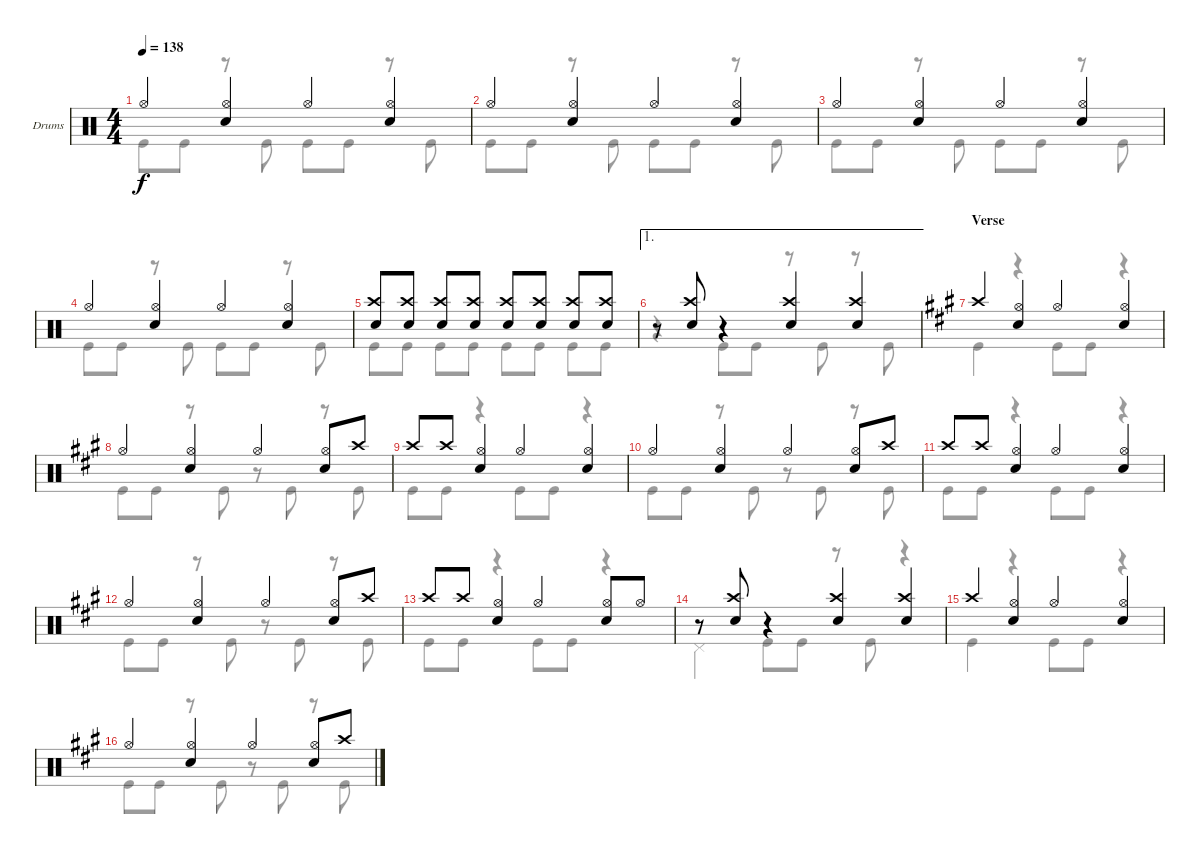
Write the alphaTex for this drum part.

\defaultSystemsLayout 4
\bracketExtendMode groupsimilarinstruments
\firstSystemTrackNameOrientation horizontal
\otherSystemsTrackNameOrientation horizontal
\track ("Drumkit" "Drums") {instrument percussion}
\staff {score}
\articulation defaults
\voice
\ts (4 4)
\tempo 138
\clef neutral
\ks c "Hi-Hat (open)".4{dy f}
("Hi-Hat (open)" "Snare (hit) 2").4 "Hi-Hat (open)".4 ("Hi-Hat (open)" "Snare (hit) 2").4 |
"Hi-Hat (open)".4 ("Hi-Hat (open)" "Snare (hit) 2").4 "Hi-Hat (open)".4 ("Hi-Hat (open)" "Snare (hit) 2").4 |
"Hi-Hat (open)".4 ("Hi-Hat (open)" "Snare (hit) 2").4 "Hi-Hat (open)".4 ("Hi-Hat (open)" "Snare (hit) 2").4 |
"Hi-Hat (open)".4 ("Hi-Hat (open)" "Snare (hit) 2").4 "Hi-Hat (open)".4 ("Hi-Hat (open)" "Snare (hit) 2").4 |
("Snare (hit) 2" "Crash high (hit)").8 ("Snare (hit) 2" "Crash high (hit)").8 ("Snare (hit) 2" "Crash high (hit)").8 ("Snare (hit) 2" "Crash high (hit)").8 ("Snare (hit) 2" "Crash high (hit)").8 ("Snare (hit) 2" "Crash high (hit)").8 ("Snare (hit) 2" "Crash high (hit)").8 ("Snare (hit) 2" "Crash high (hit)").8 |
\ae 1
r.8 ("Crash high (hit)" "Snare (hit) 2").8 r.4 ("Crash high (hit)" "Snare (hit) 2").4 ("Crash high (hit)" "Snare (hit) 2").4 |
\section ("" "Verse")
\ks a "Crash high (hit)".4
("Hi-Hat (open)" "Snare (hit) 2").4 "Hi-Hat (open)".4 ("Hi-Hat (open)" "Snare (hit) 2").4 |
"Hi-Hat (open)".4 ("Snare (hit) 2" "Hi-Hat (open)").4 "Hi-Hat (open)".4 ("Snare (hit) 2" "Hi-Hat (open)").8 "Crash high (hit)".8 |
"Crash high (hit)".8 "Crash high (hit)".8 ("Hi-Hat (open)" "Snare (hit) 2").4 "Hi-Hat (open)".4 ("Hi-Hat (open)" "Snare (hit) 2").4 |
"Hi-Hat (open)".4 ("Snare (hit) 2" "Hi-Hat (open)").4 "Hi-Hat (open)".4 ("Snare (hit) 2" "Hi-Hat (open)").8 "Crash high (hit)".8 |
"Crash high (hit)".8 "Crash high (hit)".8 ("Hi-Hat (open)" "Snare (hit) 2").4 "Hi-Hat (open)".4 ("Hi-Hat (open)" "Snare (hit) 2").4 |
"Hi-Hat (open)".4 ("Snare (hit) 2" "Hi-Hat (open)").4 "Hi-Hat (open)".4 ("Snare (hit) 2" "Hi-Hat (open)").8 "Crash high (hit)".8 |
"Crash high (hit)".8 "Crash high (hit)".8 ("Hi-Hat (open)" "Snare (hit) 2").4 "Hi-Hat (open)".4 ("Hi-Hat (open)" "Snare (hit) 2").8 "Hi-Hat (open)".8 |
r.8 ("Crash high (hit)" "Snare (hit) 2").8 r.4 ("Crash high (hit)" "Snare (hit) 2").4 ("Crash high (hit)" "Snare (hit) 2").4 |
"Crash high (hit)".4 ("Hi-Hat (open)" "Snare (hit) 2").4 "Hi-Hat (open)".4 ("Hi-Hat (open)" "Snare (hit) 2").4 |
"Hi-Hat (open)".4 ("Snare (hit) 2" "Hi-Hat (open)").4 "Hi-Hat (open)".4 ("Snare (hit) 2" "Hi-Hat (open)").8 "Crash high (hit)".8
\voice
\clef neutral
\ottava regular
\simile none
\ks c "Kick (hit)".8{dy f} "Kick (hit)".8
r.8 "Kick (hit)".8 "Kick (hit)".8 "Kick (hit)".8 r.8 "Kick (hit)".8 |
"Kick (hit)".8 "Kick (hit)".8 r.8 "Kick (hit)".8 "Kick (hit)".8 "Kick (hit)".8 r.8 "Kick (hit)".8 |
"Kick (hit)".8 "Kick (hit)".8 r.8 "Kick (hit)".8 "Kick (hit)".8 "Kick (hit)".8 r.8 "Kick (hit)".8 |
"Kick (hit)".8 "Kick (hit)".8 r.8 "Kick (hit)".8 "Kick (hit)".8 "Kick (hit)".8 r.8 "Kick (hit)".8 |
"Kick (hit)".8 "Kick (hit)".8 "Kick (hit)".8 "Kick (hit)".8 "Kick (hit)".8 "Kick (hit)".8 "Kick (hit)".8 "Kick (hit)".8 |
r.4 "Kick (hit)".8 "Kick (hit)".8 r.8 "Kick (hit)".8 r.8 "Kick (hit)".8 |
\ks a "Kick (hit)".4
r.4 "Kick (hit)".8 "Kick (hit)".8 r.4 |
"Kick (hit)".8 "Kick (hit)".8 r.8 "Kick (hit)".8 r.8 "Kick (hit)".8 r.8 "Kick (hit)".8 |
"Kick (hit)".8 "Kick (hit)".8 r.4 "Kick (hit)".8 "Kick (hit)".8 r.4 |
"Kick (hit)".8 "Kick (hit)".8 r.8 "Kick (hit)".8 r.8 "Kick (hit)".8 r.8 "Kick (hit)".8 |
"Kick (hit)".8 "Kick (hit)".8 r.4 "Kick (hit)".8 "Kick (hit)".8 r.4 |
"Kick (hit)".8 "Kick (hit)".8 r.8 "Kick (hit)".8 r.8 "Kick (hit)".8 r.8 "Kick (hit)".8 |
"Kick (hit)".8 "Kick (hit)".8 r.4 "Kick (hit)".8 "Kick (hit)".8 r.4 |
"Pedal Hi-Hat (hit)".4 "Kick (hit)".8 "Kick (hit)".8 r.8 "Kick (hit)".8 r.4 |
"Kick (hit)".4 r.4 "Kick (hit)".8 "Kick (hit)".8 r.4 |
"Kick (hit)".8 "Kick (hit)".8 r.8 "Kick (hit)".8 r.8 "Kick (hit)".8 r.8 "Kick (hit)".8
